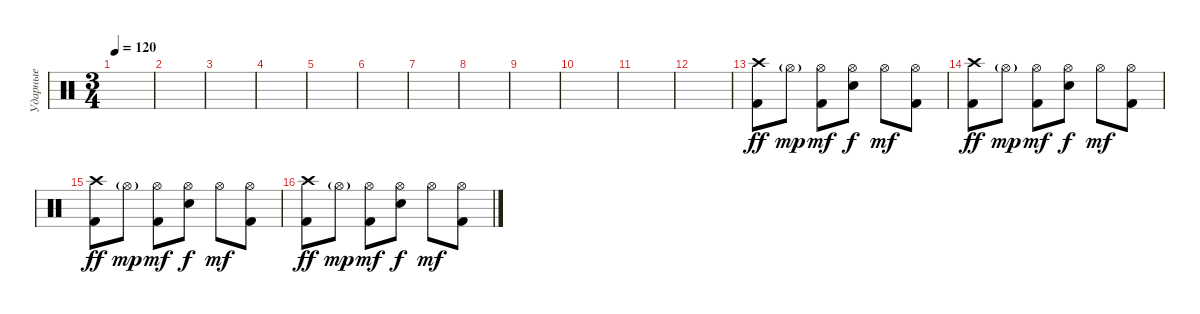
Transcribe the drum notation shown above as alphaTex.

\track ("Ударные" "Ударные") {instrument percussion}
\staff {score}
\articulation defaults
\ts (3 4)
\tempo 120
\clef neutral
\ks c
|
|
|
|
|
|
|
|
|
|
|
|
("Crash high (hit)" "Kick (hit) 2").8{dy ff} "Hi-Hat (open)"{g}.8{dy mp} ("Hi-Hat (open)" "Kick (hit) 2").8{dy mf} ("Hi-Hat (open)" "Electric Snare (hit)").8{dy f} "Hi-Hat (open)".8{dy mf} ("Hi-Hat (open)" "Kick (hit) 2").8 |
("Crash high (hit)" "Kick (hit) 2").8{dy ff} "Hi-Hat (open)"{g}.8{dy mp} ("Hi-Hat (open)" "Kick (hit) 2").8{dy mf} ("Hi-Hat (open)" "Electric Snare (hit)").8{dy f} "Hi-Hat (open)".8{dy mf} ("Hi-Hat (open)" "Kick (hit) 2").8 |
("Crash high (hit)" "Kick (hit) 2").8{dy ff} "Hi-Hat (open)"{g}.8{dy mp} ("Hi-Hat (open)" "Kick (hit) 2").8{dy mf} ("Hi-Hat (open)" "Electric Snare (hit)").8{dy f} "Hi-Hat (open)".8{dy mf} ("Hi-Hat (open)" "Kick (hit) 2").8 |
("Crash high (hit)" "Kick (hit) 2").8{dy ff} "Hi-Hat (open)"{g}.8{dy mp} ("Hi-Hat (open)" "Kick (hit) 2").8{dy mf} ("Hi-Hat (open)" "Electric Snare (hit)").8{dy f} "Hi-Hat (open)".8{dy mf} ("Hi-Hat (open)" "Kick (hit) 2").8
